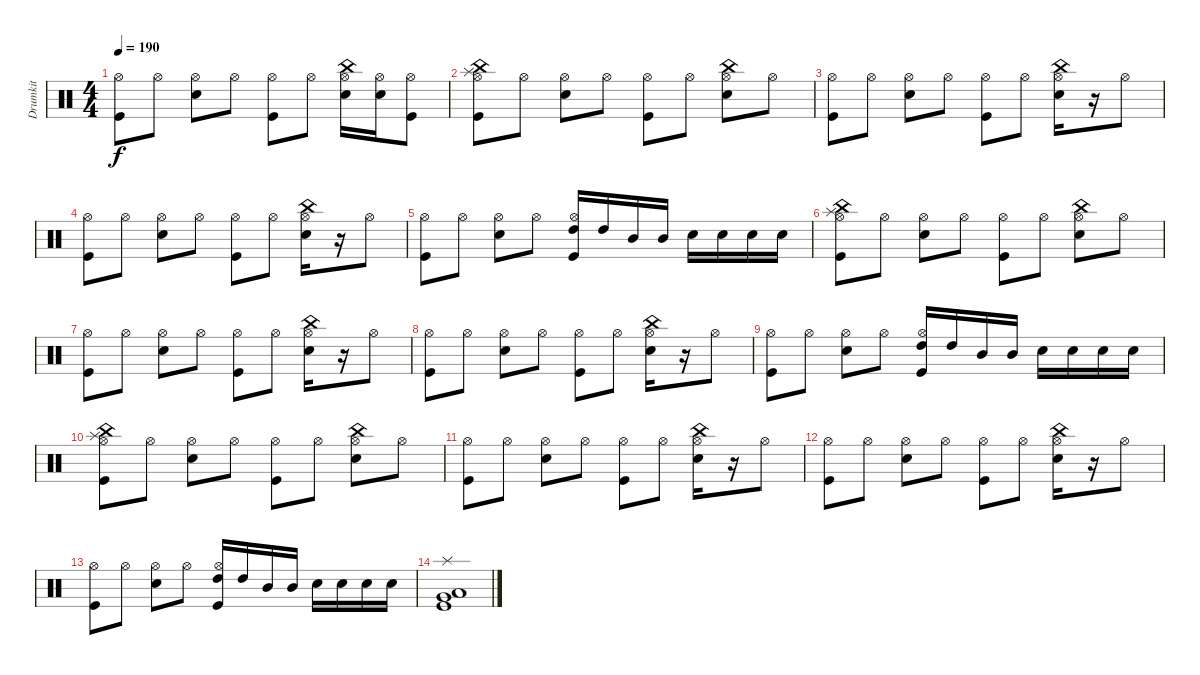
\track ("Drumkit" "Drumkit") {instrument percussion}
\staff {score}
\articulation defaults
\ts (4 4)
\tempo 190
\clef neutral
\ks c
("Kick (hit)" "Hi-Hat (open)").8{dy f} "Hi-Hat (open)".8 ("Snare (hit) 2" "Hi-Hat (open)").8 "Hi-Hat (open)".8 ("Kick (hit)" "Hi-Hat (open)").8 "Hi-Hat (open)".8 ("Snare (hit) 2" "Hi-Hat (open)" "China (hit)").16 ("Snare (hit) 2" "Hi-Hat (open)").16 ("Kick (hit)" "Hi-Hat (open)").8 |
("Kick (hit)" "Hi-Hat (open)" "Splash (hit)" "China (hit)").8 "Hi-Hat (open)".8 ("Snare (hit) 2" "Hi-Hat (open)").8 "Hi-Hat (open)".8 ("Kick (hit)" "Hi-Hat (open)").8 "Hi-Hat (open)".8 ("Snare (hit) 2" "Hi-Hat (open)" "China (hit)").8 "Hi-Hat (open)".8 |
("Kick (hit)" "Hi-Hat (open)").8 "Hi-Hat (open)".8 ("Snare (hit) 2" "Hi-Hat (open)").8 "Hi-Hat (open)".8 ("Kick (hit)" "Hi-Hat (open)").8 "Hi-Hat (open)".8 ("Snare (hit) 2" "Hi-Hat (open)" "China (hit)").16 r.16 "Hi-Hat (open)".8 |
("Kick (hit)" "Hi-Hat (open)").8 "Hi-Hat (open)".8 ("Snare (hit) 2" "Hi-Hat (open)").8 "Hi-Hat (open)".8 ("Kick (hit)" "Hi-Hat (open)").8 "Hi-Hat (open)".8 ("Snare (hit) 2" "Hi-Hat (open)" "China (hit)").16 r.16 "Hi-Hat (open)".8 |
("Kick (hit)" "Hi-Hat (open)").8 "Hi-Hat (open)".8 ("Snare (hit) 2" "Hi-Hat (open)").8 "Hi-Hat (open)".8 ("Kick (hit)" "Hi-Hat (open)" "High Tom (hit)").16 "High Tom (hit)".16 "Mid Tom (hit)".16 "Mid Tom (hit)".16 "Snare (hit) 2".16 "Snare (hit) 2".16 "Snare (hit) 2".16 "Snare (hit) 2".16 |
("Kick (hit)" "Hi-Hat (open)" "Splash (hit)" "China (hit)").8 "Hi-Hat (open)".8 ("Snare (hit) 2" "Hi-Hat (open)").8 "Hi-Hat (open)".8 ("Kick (hit)" "Hi-Hat (open)").8 "Hi-Hat (open)".8 ("Snare (hit) 2" "Hi-Hat (open)" "China (hit)").8 "Hi-Hat (open)".8 |
("Kick (hit)" "Hi-Hat (open)").8 "Hi-Hat (open)".8 ("Snare (hit) 2" "Hi-Hat (open)").8 "Hi-Hat (open)".8 ("Kick (hit)" "Hi-Hat (open)").8 "Hi-Hat (open)".8 ("Snare (hit) 2" "Hi-Hat (open)" "China (hit)").16 r.16 "Hi-Hat (open)".8 |
("Kick (hit)" "Hi-Hat (open)").8 "Hi-Hat (open)".8 ("Snare (hit) 2" "Hi-Hat (open)").8 "Hi-Hat (open)".8 ("Kick (hit)" "Hi-Hat (open)").8 "Hi-Hat (open)".8 ("Snare (hit) 2" "Hi-Hat (open)" "China (hit)").16 r.16 "Hi-Hat (open)".8 |
("Kick (hit)" "Hi-Hat (open)").8 "Hi-Hat (open)".8 ("Snare (hit) 2" "Hi-Hat (open)").8 "Hi-Hat (open)".8 ("Kick (hit)" "Hi-Hat (open)" "High Tom (hit)").16 "High Tom (hit)".16 "Mid Tom (hit)".16 "Mid Tom (hit)".16 "Snare (hit) 2".16 "Snare (hit) 2".16 "Snare (hit) 2".16 "Snare (hit) 2".16 |
("Kick (hit)" "Hi-Hat (open)" "Splash (hit)" "China (hit)").8 "Hi-Hat (open)".8 ("Snare (hit) 2" "Hi-Hat (open)").8 "Hi-Hat (open)".8 ("Kick (hit)" "Hi-Hat (open)").8 "Hi-Hat (open)".8 ("Snare (hit) 2" "Hi-Hat (open)" "China (hit)").8 "Hi-Hat (open)".8 |
("Kick (hit)" "Hi-Hat (open)").8 "Hi-Hat (open)".8 ("Snare (hit) 2" "Hi-Hat (open)").8 "Hi-Hat (open)".8 ("Kick (hit)" "Hi-Hat (open)").8 "Hi-Hat (open)".8 ("Snare (hit) 2" "Hi-Hat (open)" "China (hit)").16 r.16 "Hi-Hat (open)".8 |
("Kick (hit)" "Hi-Hat (open)").8 "Hi-Hat (open)".8 ("Snare (hit) 2" "Hi-Hat (open)").8 "Hi-Hat (open)".8 ("Kick (hit)" "Hi-Hat (open)").8 "Hi-Hat (open)".8 ("Snare (hit) 2" "Hi-Hat (open)" "China (hit)").16 r.16 "Hi-Hat (open)".8 |
("Kick (hit)" "Hi-Hat (open)").8 "Hi-Hat (open)".8 ("Snare (hit) 2" "Hi-Hat (open)").8 "Hi-Hat (open)".8 ("Kick (hit)" "Hi-Hat (open)" "High Tom (hit)").16 "High Tom (hit)".16 "Mid Tom (hit)".16 "Mid Tom (hit)".16 "Snare (hit) 2".16 "Snare (hit) 2".16 "Snare (hit) 2".16 "Snare (hit) 2".16 |
("Kick (hit)" "Very Low Tom (hit)" "Splash (hit)" "Low Floor Tom (hit)").1
